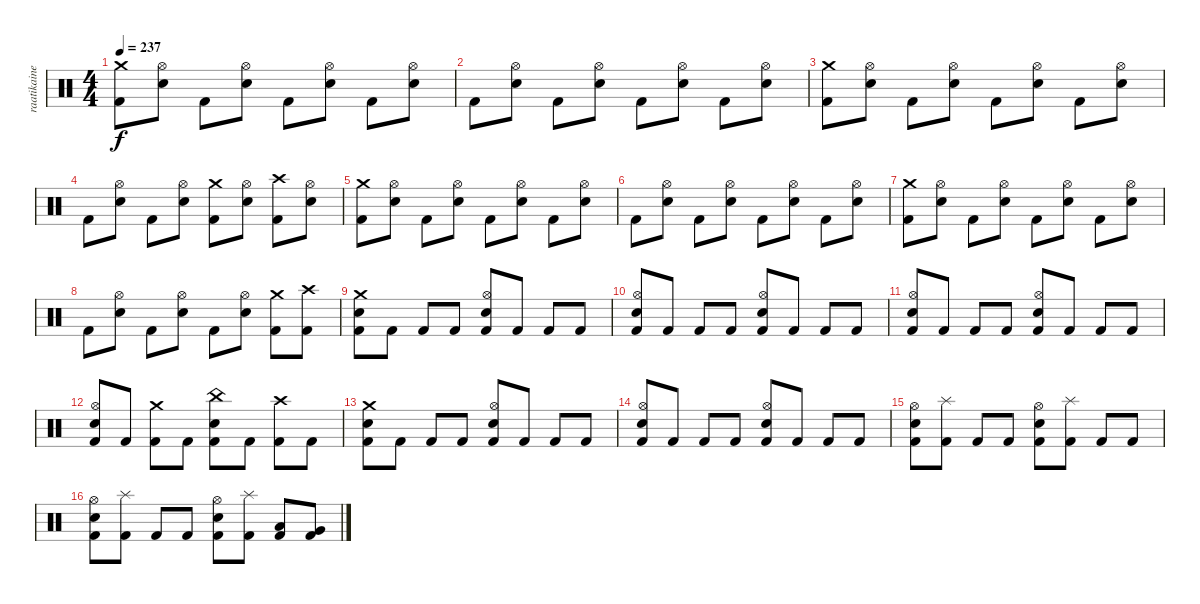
\track ("raatikainen" "raatikaine") {instrument percussion}
\staff {score}
\articulation defaults
\ts (4 4)
\tempo 237
\clef neutral
\ks c
("Crash medium (hit)" "Kick (hit) 2").8{dy f} ("Hi-Hat (open)" "Snare (hit) 2").8 "Kick (hit) 2".8 ("Hi-Hat (open)" "Snare (hit) 2").8 "Kick (hit) 2".8 ("Hi-Hat (open)" "Snare (hit) 2").8 "Kick (hit) 2".8 ("Hi-Hat (open)" "Snare (hit) 2").8 |
"Kick (hit) 2".8 ("Hi-Hat (open)" "Snare (hit) 2").8 "Kick (hit) 2".8 ("Hi-Hat (open)" "Snare (hit) 2").8 "Kick (hit) 2".8 ("Hi-Hat (open)" "Snare (hit) 2").8 "Kick (hit) 2".8 ("Hi-Hat (open)" "Snare (hit) 2").8 |
("Crash medium (hit)" "Kick (hit) 2").8 ("Hi-Hat (open)" "Snare (hit) 2").8 "Kick (hit) 2".8 ("Hi-Hat (open)" "Snare (hit) 2").8 "Kick (hit) 2".8 ("Hi-Hat (open)" "Snare (hit) 2").8 "Kick (hit) 2".8 ("Hi-Hat (open)" "Snare (hit) 2").8 |
"Kick (hit) 2".8 ("Hi-Hat (open)" "Snare (hit) 2").8 "Kick (hit) 2".8 ("Hi-Hat (open)" "Snare (hit) 2").8 ("Crash medium (hit)" "Kick (hit) 2").8 ("Hi-Hat (open)" "Snare (hit) 2").8 ("Crash high (hit)" "Kick (hit) 2").8 ("Hi-Hat (open)" "Snare (hit) 2").8 |
("Crash medium (hit)" "Kick (hit) 2").8 ("Hi-Hat (open)" "Snare (hit) 2").8 "Kick (hit) 2".8 ("Hi-Hat (open)" "Snare (hit) 2").8 "Kick (hit) 2".8 ("Hi-Hat (open)" "Snare (hit) 2").8 "Kick (hit) 2".8 ("Hi-Hat (open)" "Snare (hit) 2").8 |
"Kick (hit) 2".8 ("Hi-Hat (open)" "Snare (hit) 2").8 "Kick (hit) 2".8 ("Hi-Hat (open)" "Snare (hit) 2").8 "Kick (hit) 2".8 ("Hi-Hat (open)" "Snare (hit) 2").8 "Kick (hit) 2".8 ("Hi-Hat (open)" "Snare (hit) 2").8 |
("Crash medium (hit)" "Kick (hit) 2").8 ("Hi-Hat (open)" "Snare (hit) 2").8 "Kick (hit) 2".8 ("Hi-Hat (open)" "Snare (hit) 2").8 "Kick (hit) 2".8 ("Hi-Hat (open)" "Snare (hit) 2").8 "Kick (hit) 2".8 ("Hi-Hat (open)" "Snare (hit) 2").8 |
"Kick (hit) 2".8 ("Hi-Hat (open)" "Snare (hit) 2").8 "Kick (hit) 2".8 ("Hi-Hat (open)" "Snare (hit) 2").8 "Kick (hit) 2".8 ("Hi-Hat (open)" "Snare (hit) 2").8 ("Crash medium (hit)" "Kick (hit) 2").8 ("Crash high (hit)" "Kick (hit) 2").8 |
("Crash medium (hit)" "Snare (hit) 2" "Kick (hit) 2").8 "Kick (hit) 2".8 "Kick (hit) 2".8 "Kick (hit) 2".8 ("Hi-Hat (open)" "Snare (hit) 2" "Kick (hit) 2").8 "Kick (hit) 2".8 "Kick (hit) 2".8 "Kick (hit) 2".8 |
("Hi-Hat (open)" "Snare (hit) 2" "Kick (hit) 2").8 "Kick (hit) 2".8 "Kick (hit) 2".8 "Kick (hit) 2".8 ("Hi-Hat (open)" "Snare (hit) 2" "Kick (hit) 2").8 "Kick (hit) 2".8 "Kick (hit) 2".8 "Kick (hit) 2".8 |
("Hi-Hat (open)" "Snare (hit) 2" "Kick (hit) 2").8 "Kick (hit) 2".8 "Kick (hit) 2".8 "Kick (hit) 2".8 ("Hi-Hat (open)" "Snare (hit) 2" "Kick (hit) 2").8 "Kick (hit) 2".8 "Kick (hit) 2".8 "Kick (hit) 2".8 |
("Hi-Hat (open)" "Snare (hit) 2" "Kick (hit) 2").8 "Kick (hit) 2".8 ("Crash medium (hit)" "Kick (hit) 2").8 "Kick (hit) 2".8 ("China (hit)" "Snare (hit) 2" "Kick (hit) 2").8 "Kick (hit) 2".8 ("Crash high (hit)" "Kick (hit) 2").8 "Kick (hit) 2".8 |
("Crash medium (hit)" "Snare (hit) 2" "Kick (hit) 2").8 "Kick (hit) 2".8 "Kick (hit) 2".8 "Kick (hit) 2".8 ("Hi-Hat (open)" "Snare (hit) 2" "Kick (hit) 2").8 "Kick (hit) 2".8 "Kick (hit) 2".8 "Kick (hit) 2".8 |
("Hi-Hat (open)" "Snare (hit) 2" "Kick (hit) 2").8 "Kick (hit) 2".8 "Kick (hit) 2".8 "Kick (hit) 2".8 ("Hi-Hat (open)" "Snare (hit) 2" "Kick (hit) 2").8 "Kick (hit) 2".8 "Kick (hit) 2".8 "Kick (hit) 2".8 |
("Hi-Hat (open)" "Snare (hit) 2" "Kick (hit) 2").8 ("Splash (hit)" "Kick (hit) 2").8 "Kick (hit) 2".8 "Kick (hit) 2".8 ("Hi-Hat (open)" "Snare (hit) 2" "Kick (hit) 2").8 ("Splash (hit)" "Kick (hit) 2").8 "Kick (hit) 2".8 "Kick (hit) 2".8 |
("Hi-Hat (open)" "Snare (hit) 2" "Kick (hit) 2").8 ("Splash (hit)" "Kick (hit) 2").8 "Kick (hit) 2".8 "Kick (hit) 2".8 ("Hi-Hat (open)" "Snare (hit) 2" "Kick (hit) 2").8 ("Splash (hit)" "Kick (hit) 2").8 ("Low Tom (hit)" "Kick (hit) 2").8 ("Very Low Tom (hit)" "Kick (hit) 2").8
